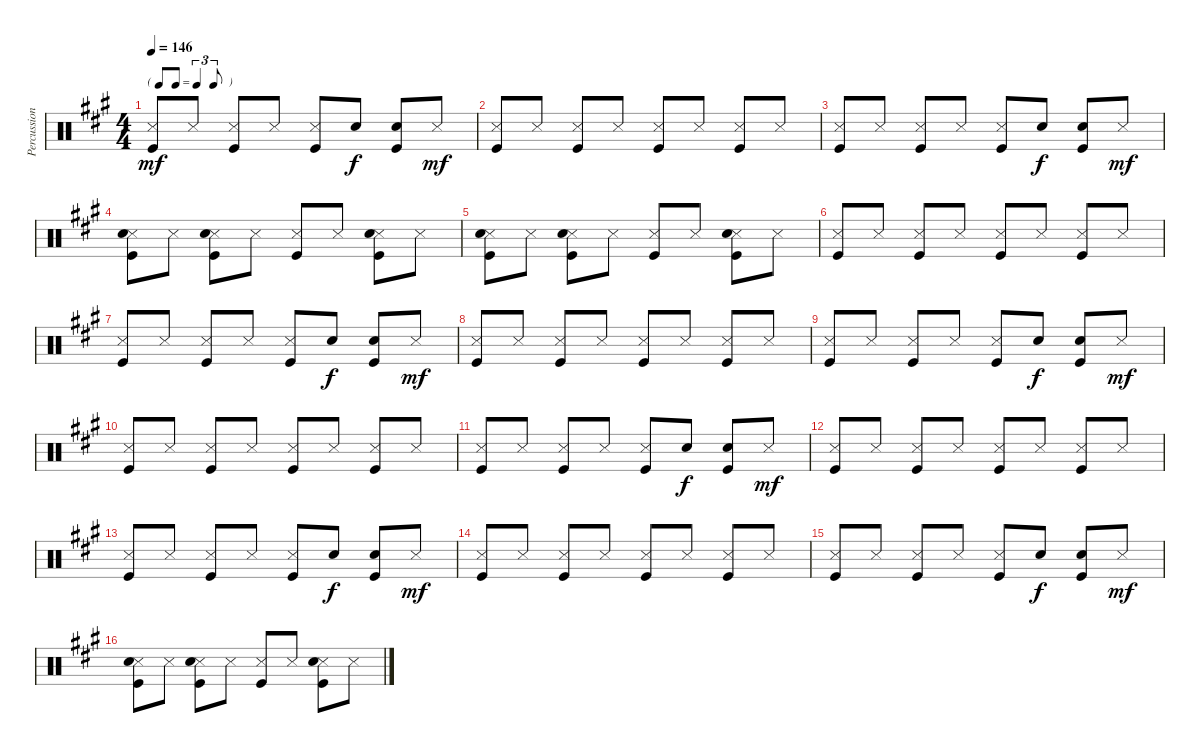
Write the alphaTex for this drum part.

\track ("Percussion" "Percussion") {instrument percussion}
\staff {score}
\articulation defaults
\ts (4 4)
\tf triplet8th
\tempo 146
\clef neutral
\ks a
("Snare (side stick) 3" "Kick (hit)").8{dy mf} "Snare (side stick) 3".8 ("Snare (side stick) 3" "Kick (hit)").8 "Snare (side stick) 3".8 ("Snare (side stick) 3" "Kick (hit)").8 "Snare (hit) 2".8{dy f} ("Snare (hit) 2" "Kick (hit)").8 "Snare (side stick) 3".8{dy mf} |
("Snare (side stick) 3" "Kick (hit)").8 "Snare (side stick) 3".8 ("Snare (side stick) 3" "Kick (hit)").8 "Snare (side stick) 3".8 ("Snare (side stick) 3" "Kick (hit)").8 "Snare (side stick) 3".8 ("Snare (side stick) 3" "Kick (hit)").8 "Snare (side stick) 3".8 |
("Snare (side stick) 3" "Kick (hit)").8 "Snare (side stick) 3".8 ("Snare (side stick) 3" "Kick (hit)").8 "Snare (side stick) 3".8 ("Snare (side stick) 3" "Kick (hit)").8 "Snare (hit) 2".8{dy f} ("Snare (hit) 2" "Kick (hit)").8 "Snare (side stick) 3".8{dy mf} |
("Snare (side stick) 3" "Snare (hit) 2" "Kick (hit)").8 "Snare (side stick) 3".8 ("Snare (side stick) 3" "Snare (hit) 2" "Kick (hit)").8 "Snare (side stick) 3".8 ("Snare (side stick) 3" "Kick (hit)").8 "Snare (side stick) 3".8 ("Snare (side stick) 3" "Snare (hit) 2" "Kick (hit)").8 "Snare (side stick) 3".8 |
("Snare (side stick) 3" "Snare (hit) 2" "Kick (hit)").8 "Snare (side stick) 3".8 ("Snare (side stick) 3" "Snare (hit) 2" "Kick (hit)").8 "Snare (side stick) 3".8 ("Snare (side stick) 3" "Kick (hit)").8 "Snare (side stick) 3".8 ("Snare (side stick) 3" "Snare (hit) 2" "Kick (hit)").8 "Snare (side stick) 3".8 |
("Snare (side stick) 3" "Kick (hit)").8 "Snare (side stick) 3".8 ("Snare (side stick) 3" "Kick (hit)").8 "Snare (side stick) 3".8 ("Snare (side stick) 3" "Kick (hit)").8 "Snare (side stick) 3".8 ("Snare (side stick) 3" "Kick (hit)").8 "Snare (side stick) 3".8 |
("Snare (side stick) 3" "Kick (hit)").8 "Snare (side stick) 3".8 ("Snare (side stick) 3" "Kick (hit)").8 "Snare (side stick) 3".8 ("Snare (side stick) 3" "Kick (hit)").8 "Snare (hit) 2".8{dy f} ("Snare (hit) 2" "Kick (hit)").8 "Snare (side stick) 3".8{dy mf} |
("Snare (side stick) 3" "Kick (hit)").8 "Snare (side stick) 3".8 ("Snare (side stick) 3" "Kick (hit)").8 "Snare (side stick) 3".8 ("Snare (side stick) 3" "Kick (hit)").8 "Snare (side stick) 3".8 ("Snare (side stick) 3" "Kick (hit)").8 "Snare (side stick) 3".8 |
("Snare (side stick) 3" "Kick (hit)").8 "Snare (side stick) 3".8 ("Snare (side stick) 3" "Kick (hit)").8 "Snare (side stick) 3".8 ("Snare (side stick) 3" "Kick (hit)").8 "Snare (hit) 2".8{dy f} ("Snare (hit) 2" "Kick (hit)").8 "Snare (side stick) 3".8{dy mf} |
("Snare (side stick) 3" "Kick (hit)").8 "Snare (side stick) 3".8 ("Snare (side stick) 3" "Kick (hit)").8 "Snare (side stick) 3".8 ("Snare (side stick) 3" "Kick (hit)").8 "Snare (side stick) 3".8 ("Snare (side stick) 3" "Kick (hit)").8 "Snare (side stick) 3".8 |
("Snare (side stick) 3" "Kick (hit)").8 "Snare (side stick) 3".8 ("Snare (side stick) 3" "Kick (hit)").8 "Snare (side stick) 3".8 ("Snare (side stick) 3" "Kick (hit)").8 "Snare (hit) 2".8{dy f} ("Snare (hit) 2" "Kick (hit)").8 "Snare (side stick) 3".8{dy mf} |
("Snare (side stick) 3" "Kick (hit)").8 "Snare (side stick) 3".8 ("Snare (side stick) 3" "Kick (hit)").8 "Snare (side stick) 3".8 ("Snare (side stick) 3" "Kick (hit)").8 "Snare (side stick) 3".8 ("Snare (side stick) 3" "Kick (hit)").8 "Snare (side stick) 3".8 |
("Snare (side stick) 3" "Kick (hit)").8 "Snare (side stick) 3".8 ("Snare (side stick) 3" "Kick (hit)").8 "Snare (side stick) 3".8 ("Snare (side stick) 3" "Kick (hit)").8 "Snare (hit) 2".8{dy f} ("Snare (hit) 2" "Kick (hit)").8 "Snare (side stick) 3".8{dy mf} |
("Snare (side stick) 3" "Kick (hit)").8 "Snare (side stick) 3".8 ("Snare (side stick) 3" "Kick (hit)").8 "Snare (side stick) 3".8 ("Snare (side stick) 3" "Kick (hit)").8 "Snare (side stick) 3".8 ("Snare (side stick) 3" "Kick (hit)").8 "Snare (side stick) 3".8 |
("Snare (side stick) 3" "Kick (hit)").8 "Snare (side stick) 3".8 ("Snare (side stick) 3" "Kick (hit)").8 "Snare (side stick) 3".8 ("Snare (side stick) 3" "Kick (hit)").8 "Snare (hit) 2".8{dy f} ("Snare (hit) 2" "Kick (hit)").8 "Snare (side stick) 3".8{dy mf} |
("Snare (side stick) 3" "Snare (hit) 2" "Kick (hit)").8 "Snare (side stick) 3".8 ("Snare (side stick) 3" "Snare (hit) 2" "Kick (hit)").8 "Snare (side stick) 3".8 ("Snare (side stick) 3" "Kick (hit)").8 "Snare (side stick) 3".8 ("Snare (side stick) 3" "Snare (hit) 2" "Kick (hit)").8 "Snare (side stick) 3".8
